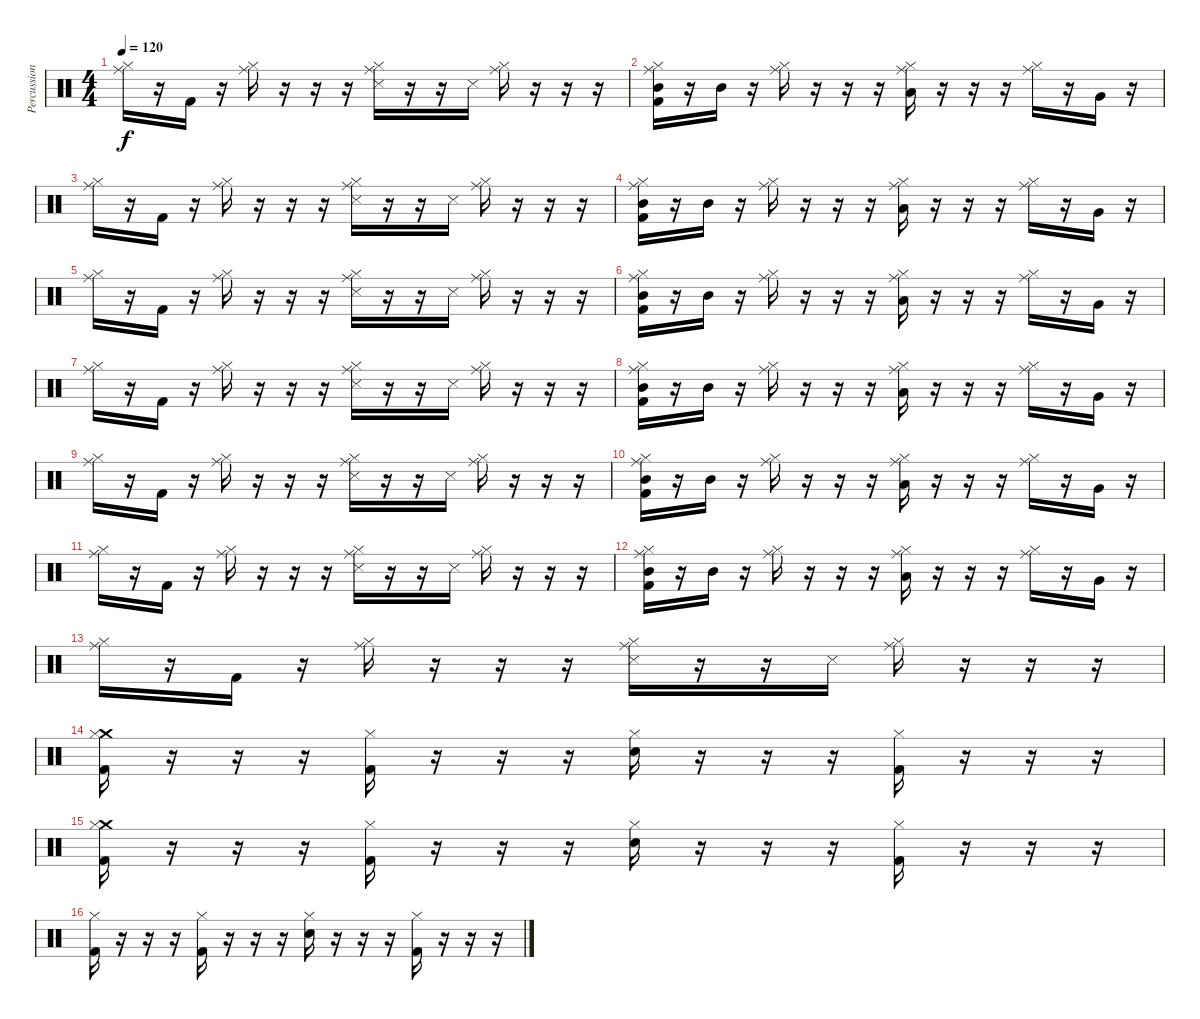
\track ("Percussion" "Percussion") {instrument percussion}
\staff {score}
\articulation defaults
\ts (4 4)
\tempo 120
\clef neutral
\ks c
("Hi-Hat (closed)" "Ride (middle)").16{dy f} r.16 "Kick (hit) 2".16 r.16 ("Hi-Hat (closed)" "Ride (middle)").16 r.16 r.16 r.16 ("Hi-Hat (closed)" "Ride (middle)" "Snare (side stick) 3").16 r.16 r.16 "Snare (side stick) 3".16 ("Hi-Hat (closed)" "Ride (middle)").16 r.16 r.16 r.16 |
("Hi-Hat (closed)" "Ride (middle)" "Mid Tom (hit)" "Kick (hit) 2").16 r.16 "Mid Tom (hit)".16 r.16 ("Hi-Hat (closed)" "Ride (middle)").16 r.16 r.16 r.16 ("Hi-Hat (closed)" "Ride (middle)" "Low Tom (hit)").16 r.16 r.16 r.16 ("Hi-Hat (closed)" "Ride (middle)").16 r.16 "Very Low Tom (hit)".16 r.16 |
("Hi-Hat (closed)" "Ride (middle)").16 r.16 "Kick (hit) 2".16 r.16 ("Hi-Hat (closed)" "Ride (middle)").16 r.16 r.16 r.16 ("Hi-Hat (closed)" "Ride (middle)" "Snare (side stick) 3").16 r.16 r.16 "Snare (side stick) 3".16 ("Hi-Hat (closed)" "Ride (middle)").16 r.16 r.16 r.16 |
("Hi-Hat (closed)" "Ride (middle)" "Mid Tom (hit)" "Kick (hit) 2").16 r.16 "Mid Tom (hit)".16 r.16 ("Hi-Hat (closed)" "Ride (middle)").16 r.16 r.16 r.16 ("Hi-Hat (closed)" "Ride (middle)" "Low Tom (hit)").16 r.16 r.16 r.16 ("Hi-Hat (closed)" "Ride (middle)").16 r.16 "Very Low Tom (hit)".16 r.16 |
("Hi-Hat (closed)" "Ride (middle)").16 r.16 "Kick (hit) 2".16 r.16 ("Hi-Hat (closed)" "Ride (middle)").16 r.16 r.16 r.16 ("Hi-Hat (closed)" "Ride (middle)" "Snare (side stick) 3").16 r.16 r.16 "Snare (side stick) 3".16 ("Hi-Hat (closed)" "Ride (middle)").16 r.16 r.16 r.16 |
("Hi-Hat (closed)" "Ride (middle)" "Mid Tom (hit)" "Kick (hit) 2").16 r.16 "Mid Tom (hit)".16 r.16 ("Hi-Hat (closed)" "Ride (middle)").16 r.16 r.16 r.16 ("Hi-Hat (closed)" "Ride (middle)" "Low Tom (hit)").16 r.16 r.16 r.16 ("Hi-Hat (closed)" "Ride (middle)").16 r.16 "Very Low Tom (hit)".16 r.16 |
("Hi-Hat (closed)" "Ride (middle)").16 r.16 "Kick (hit) 2".16 r.16 ("Hi-Hat (closed)" "Ride (middle)").16 r.16 r.16 r.16 ("Hi-Hat (closed)" "Ride (middle)" "Snare (side stick) 3").16 r.16 r.16 "Snare (side stick) 3".16 ("Hi-Hat (closed)" "Ride (middle)").16 r.16 r.16 r.16 |
("Hi-Hat (closed)" "Ride (middle)" "Mid Tom (hit)" "Kick (hit) 2").16 r.16 "Mid Tom (hit)".16 r.16 ("Hi-Hat (closed)" "Ride (middle)").16 r.16 r.16 r.16 ("Hi-Hat (closed)" "Ride (middle)" "Low Tom (hit)").16 r.16 r.16 r.16 ("Hi-Hat (closed)" "Ride (middle)").16 r.16 "Very Low Tom (hit)".16 r.16 |
("Hi-Hat (closed)" "Ride (middle)").16 r.16 "Kick (hit) 2".16 r.16 ("Hi-Hat (closed)" "Ride (middle)").16 r.16 r.16 r.16 ("Hi-Hat (closed)" "Ride (middle)" "Snare (side stick) 3").16 r.16 r.16 "Snare (side stick) 3".16 ("Hi-Hat (closed)" "Ride (middle)").16 r.16 r.16 r.16 |
("Hi-Hat (closed)" "Ride (middle)" "Mid Tom (hit)" "Kick (hit) 2").16 r.16 "Mid Tom (hit)".16 r.16 ("Hi-Hat (closed)" "Ride (middle)").16 r.16 r.16 r.16 ("Hi-Hat (closed)" "Ride (middle)" "Low Tom (hit)").16 r.16 r.16 r.16 ("Hi-Hat (closed)" "Ride (middle)").16 r.16 "Very Low Tom (hit)".16 r.16 |
("Hi-Hat (closed)" "Ride (middle)").16 r.16 "Kick (hit) 2".16 r.16 ("Hi-Hat (closed)" "Ride (middle)").16 r.16 r.16 r.16 ("Hi-Hat (closed)" "Ride (middle)" "Snare (side stick) 3").16 r.16 r.16 "Snare (side stick) 3".16 ("Hi-Hat (closed)" "Ride (middle)").16 r.16 r.16 r.16 |
("Hi-Hat (closed)" "Ride (middle)" "Mid Tom (hit)" "Kick (hit) 2").16 r.16 "Mid Tom (hit)".16 r.16 ("Hi-Hat (closed)" "Ride (middle)").16 r.16 r.16 r.16 ("Hi-Hat (closed)" "Ride (middle)" "Low Tom (hit)").16 r.16 r.16 r.16 ("Hi-Hat (closed)" "Ride (middle)").16 r.16 "Very Low Tom (hit)".16 r.16 |
("Hi-Hat (closed)" "Ride (middle)").16 r.16 "Kick (hit) 2".16 r.16 ("Hi-Hat (closed)" "Ride (middle)").16 r.16 r.16 r.16 ("Hi-Hat (closed)" "Ride (middle)" "Snare (side stick) 3").16 r.16 r.16 "Snare (side stick) 3".16 ("Hi-Hat (closed)" "Ride (middle)").16 r.16 r.16 r.16 |
("Crash medium (hit)" "Hi-Hat (closed)" "Kick (hit) 2").16{volume 16} r.16 r.16 r.16 ("Hi-Hat (closed)" "Kick (hit) 2").16 r.16 r.16 r.16 ("Hi-Hat (closed)" "Snare (hit) 2").16 r.16 r.16 r.16 ("Hi-Hat (closed)" "Kick (hit) 2").16 r.16 r.16 r.16 |
("Crash medium (hit)" "Hi-Hat (closed)" "Kick (hit) 2").16 r.16 r.16 r.16 ("Hi-Hat (closed)" "Kick (hit) 2").16 r.16 r.16 r.16 ("Hi-Hat (closed)" "Snare (hit) 2").16 r.16 r.16 r.16 ("Hi-Hat (closed)" "Kick (hit) 2").16 r.16 r.16 r.16 |
("Hi-Hat (closed)" "Kick (hit) 2").16 r.16 r.16 r.16 ("Hi-Hat (closed)" "Kick (hit) 2").16 r.16 r.16 r.16 ("Hi-Hat (closed)" "Snare (hit) 2").16 r.16 r.16 r.16 ("Hi-Hat (closed)" "Kick (hit) 2").16 r.16 r.16 r.16
